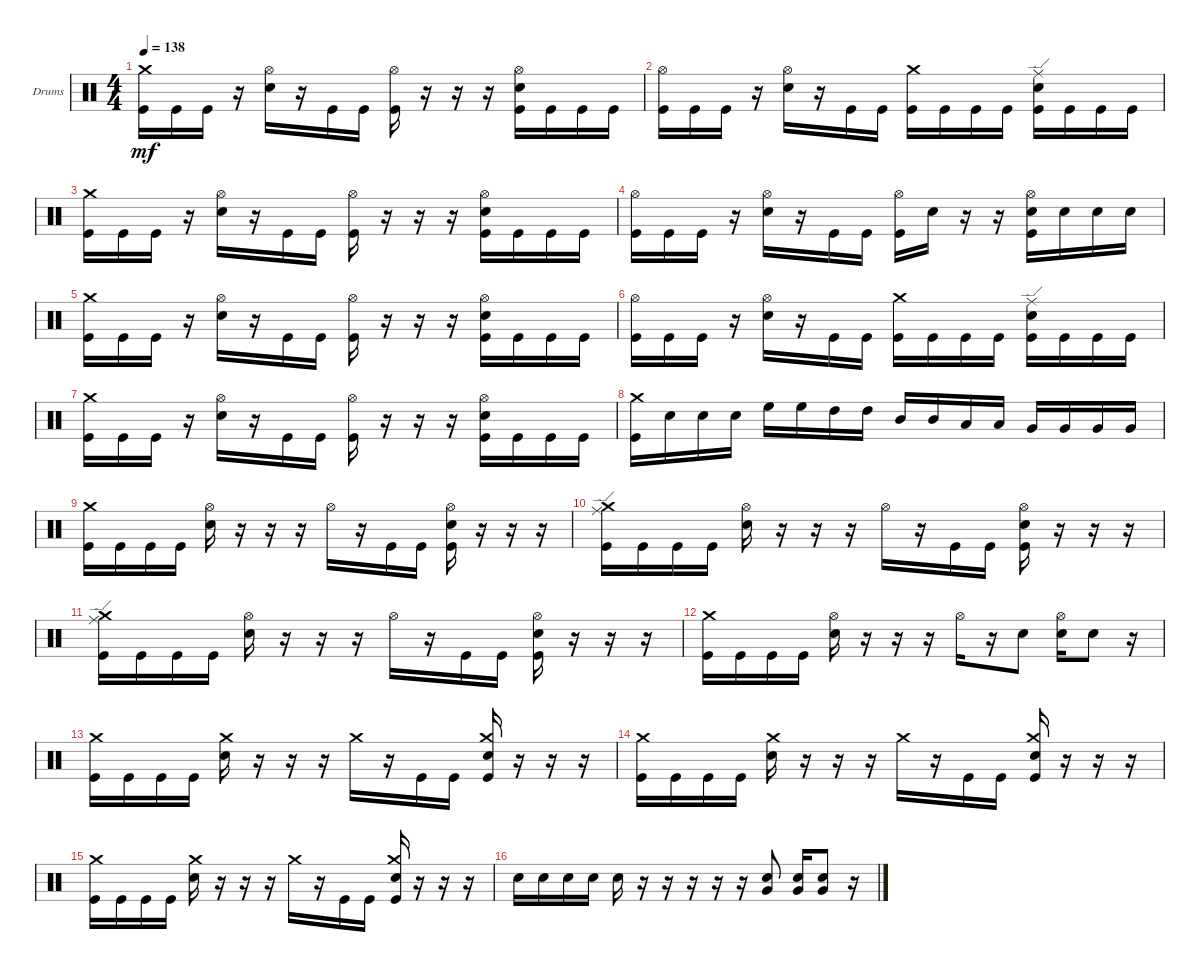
\bracketExtendMode groupsimilarinstruments
\firstSystemTrackNameOrientation horizontal
\otherSystemsTrackNameOrientation horizontal
\track ("Drumkit" "Drums") {instrument percussion}
\staff {score}
\articulation defaults
\ts (4 4)
\tempo 138
\clef neutral
\ks c
("Kick (hit)" "Crash medium (hit)").16{dy mf} "Kick (hit)".16 "Kick (hit)".16 r.16 ("Snare (hit) 2" "Hi-Hat (open)").16 r.16 "Kick (hit)".16 "Kick (hit)".16 ("Kick (hit)" "Hi-Hat (open)").16 r.16 r.16 r.16 ("Snare (hit) 2" "Kick (hit)" "Hi-Hat (open)").16 "Kick (hit)".16 "Kick (hit)".16 "Kick (hit)".16 |
("Kick (hit)" "Hi-Hat (open)").16 "Kick (hit)".16 "Kick (hit)".16 r.16 ("Snare (hit) 2" "Hi-Hat (open)").16 r.16 "Kick (hit)".16 "Kick (hit)".16 ("Kick (hit)" "Crash medium (hit)").16 "Kick (hit)".16 "Kick (hit)".16 "Kick (hit)".16 ("Kick (hit)" "Snare (hit) 2" "Ride (edge)").16 "Kick (hit)".16 "Kick (hit)".16 "Kick (hit)".16 |
("Kick (hit)" "Crash medium (hit)").16 "Kick (hit)".16 "Kick (hit)".16 r.16 ("Snare (hit) 2" "Hi-Hat (open)").16 r.16 "Kick (hit)".16 "Kick (hit)".16 ("Kick (hit)" "Hi-Hat (open)").16 r.16 r.16 r.16 ("Snare (hit) 2" "Kick (hit)" "Hi-Hat (open)").16 "Kick (hit)".16 "Kick (hit)".16 "Kick (hit)".16 |
("Kick (hit)" "Hi-Hat (open)").16 "Kick (hit)".16 "Kick (hit)".16 r.16 ("Snare (hit) 2" "Hi-Hat (open)").16 r.16 "Kick (hit)".16 "Kick (hit)".16 ("Kick (hit)" "Hi-Hat (open)").16 "Snare (hit) 2".16 r.16 r.16 ("Hi-Hat (open)" "Snare (hit) 2" "Kick (hit)").16 "Snare (hit) 2".16 "Snare (hit) 2".16 "Snare (hit) 2".16 |
("Kick (hit)" "Crash medium (hit)").16 "Kick (hit)".16 "Kick (hit)".16 r.16 ("Snare (hit) 2" "Hi-Hat (open)").16 r.16 "Kick (hit)".16 "Kick (hit)".16 ("Kick (hit)" "Hi-Hat (open)").16 r.16 r.16 r.16 ("Snare (hit) 2" "Kick (hit)" "Hi-Hat (open)").16 "Kick (hit)".16 "Kick (hit)".16 "Kick (hit)".16 |
("Kick (hit)" "Hi-Hat (open)").16 "Kick (hit)".16 "Kick (hit)".16 r.16 ("Snare (hit) 2" "Hi-Hat (open)").16 r.16 "Kick (hit)".16 "Kick (hit)".16 ("Kick (hit)" "Crash medium (hit)").16 "Kick (hit)".16 "Kick (hit)".16 "Kick (hit)".16 ("Kick (hit)" "Snare (hit) 2" "Ride (edge)").16 "Kick (hit)".16 "Kick (hit)".16 "Kick (hit)".16 |
("Kick (hit)" "Crash medium (hit)").16 "Kick (hit)".16 "Kick (hit)".16 r.16 ("Snare (hit) 2" "Hi-Hat (open)").16 r.16 "Kick (hit)".16 "Kick (hit)".16 ("Kick (hit)" "Hi-Hat (open)").16 r.16 r.16 r.16 ("Snare (hit) 2" "Kick (hit)" "Hi-Hat (open)").16 "Kick (hit)".16 "Kick (hit)".16 "Kick (hit)".16 |
("Kick (hit)" "Crash medium (hit)").16 "Snare (hit) 2".16 "Snare (hit) 2".16 "Snare (hit) 2".16 "High Floor Tom (hit)".16 "High Floor Tom (hit)".16 "High Tom (hit)".16 "High Tom (hit)".16 "Mid Tom (hit)".16 "Mid Tom (hit)".16 "Low Tom (hit)".16 "Low Tom (hit)".16 "Very Low Tom (hit)".16 "Very Low Tom (hit)".16 "Very Low Tom (hit)".16 "Very Low Tom (hit)".16 |
("Kick (hit)" "Crash medium (hit)").16 "Kick (hit)".16 "Kick (hit)".16 "Kick (hit)".16 ("Snare (hit) 2" "Hi-Hat (open)").16 r.16 r.16 r.16 "Hi-Hat (open)".16 r.16 "Kick (hit)".16 "Kick (hit)".16 ("Kick (hit)" "Snare (hit) 2" "Hi-Hat (open)").16 r.16 r.16 r.16 |
("Kick (hit)" "Crash medium (hit)" "Ride (edge)").16 "Kick (hit)".16 "Kick (hit)".16 "Kick (hit)".16 ("Snare (hit) 2" "Hi-Hat (open)").16 r.16 r.16 r.16 "Hi-Hat (open)".16 r.16 "Kick (hit)".16 "Kick (hit)".16 ("Kick (hit)" "Snare (hit) 2" "Hi-Hat (open)").16 r.16 r.16 r.16 |
("Kick (hit)" "Crash medium (hit)" "Ride (edge)").16 "Kick (hit)".16 "Kick (hit)".16 "Kick (hit)".16 ("Snare (hit) 2" "Hi-Hat (open)").16 r.16 r.16 r.16 "Hi-Hat (open)".16 r.16 "Kick (hit)".16 "Kick (hit)".16 ("Kick (hit)" "Snare (hit) 2" "Hi-Hat (open)").16 r.16 r.16 r.16 |
("Kick (hit)" "Crash medium (hit)").16 "Kick (hit)".16 "Kick (hit)".16 "Kick (hit)".16 ("Snare (hit) 2" "Hi-Hat (open)").16 r.16 r.16 r.16 "Hi-Hat (open)".16 r.16 "Snare (hit) 2".8 ("Snare (hit) 2" "Hi-Hat (open)").16 "Snare (hit) 2".8 r.16 |
("Kick (hit)" "Crash medium (hit)").16 "Kick (hit)".16 "Kick (hit)".16 "Kick (hit)".16 ("Snare (hit) 2" "Crash medium (hit)").16 r.16 r.16 r.16 "Crash medium (hit)".16 r.16 "Kick (hit)".16 "Kick (hit)".16 ("Kick (hit)" "Snare (hit) 2" "Crash medium (hit)").16 r.16 r.16 r.16 |
("Kick (hit)" "Crash medium (hit)").16 "Kick (hit)".16 "Kick (hit)".16 "Kick (hit)".16 ("Snare (hit) 2" "Crash medium (hit)").16 r.16 r.16 r.16 "Crash medium (hit)".16 r.16 "Kick (hit)".16 "Kick (hit)".16 ("Kick (hit)" "Snare (hit) 2" "Crash medium (hit)").16 r.16 r.16 r.16 |
("Kick (hit)" "Crash medium (hit)").16 "Kick (hit)".16 "Kick (hit)".16 "Kick (hit)".16 ("Snare (hit) 2" "Crash medium (hit)").16 r.16 r.16 r.16 "Crash medium (hit)".16 r.16 "Kick (hit)".16 "Kick (hit)".16 ("Kick (hit)" "Snare (hit) 2" "Crash medium (hit)").16 r.16 r.16 r.16 |
"Snare (hit) 2".16 "Snare (hit) 2".16 "Snare (hit) 2".16 "Snare (hit) 2".16 "Snare (hit) 2".16 r.16 r.16 r.16 r.16 r.16 ("Snare (hit) 2" "Very Low Tom (hit)").8 ("Snare (hit) 2" "Very Low Tom (hit)").16 ("Snare (hit) 2" "Very Low Tom (hit)").8 r.16
